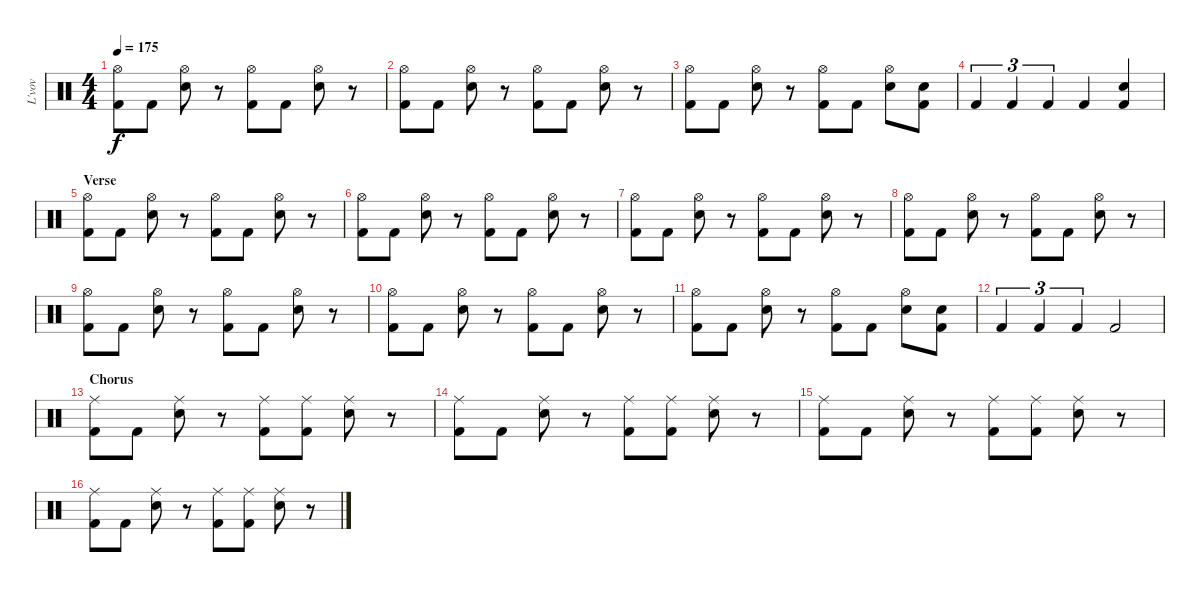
\track ("L'vov" "L'vov") {instrument percussion}
\staff {score}
\articulation defaults
\ts (4 4)
\tempo 175
\clef neutral
\ks c
("Kick (hit) 2" "Hi-Hat (open)").8{dy f} "Kick (hit) 2".8 ("Snare (hit) 2" "Hi-Hat (open)").8 r.8 ("Kick (hit) 2" "Hi-Hat (open)").8 "Kick (hit) 2".8 ("Snare (hit) 2" "Hi-Hat (open)").8 r.8 |
("Kick (hit) 2" "Hi-Hat (open)").8 "Kick (hit) 2".8 ("Snare (hit) 2" "Hi-Hat (open)").8 r.8 ("Kick (hit) 2" "Hi-Hat (open)").8 "Kick (hit) 2".8 ("Snare (hit) 2" "Hi-Hat (open)").8 r.8 |
("Kick (hit) 2" "Hi-Hat (open)").8 "Kick (hit) 2".8 ("Snare (hit) 2" "Hi-Hat (open)").8 r.8 ("Kick (hit) 2" "Hi-Hat (open)").8 "Kick (hit) 2".8 ("Snare (hit) 2" "Hi-Hat (open)").8 ("Snare (hit) 2" "Kick (hit) 2").8 |
"Kick (hit) 2".4{tu (3 2)} "Kick (hit) 2".4{tu (3 2)} "Kick (hit) 2".4{tu (3 2)} "Kick (hit) 2".4 ("Snare (hit) 2" "Kick (hit) 2").4 |
\section ("" "Verse")
("Kick (hit) 2" "Hi-Hat (open)").8 "Kick (hit) 2".8 ("Snare (hit) 2" "Hi-Hat (open)").8 r.8 ("Kick (hit) 2" "Hi-Hat (open)").8 "Kick (hit) 2".8 ("Snare (hit) 2" "Hi-Hat (open)").8 r.8 |
("Kick (hit) 2" "Hi-Hat (open)").8 "Kick (hit) 2".8 ("Snare (hit) 2" "Hi-Hat (open)").8 r.8 ("Kick (hit) 2" "Hi-Hat (open)").8 "Kick (hit) 2".8 ("Snare (hit) 2" "Hi-Hat (open)").8 r.8 |
("Kick (hit) 2" "Hi-Hat (open)").8 "Kick (hit) 2".8 ("Snare (hit) 2" "Hi-Hat (open)").8 r.8 ("Kick (hit) 2" "Hi-Hat (open)").8 "Kick (hit) 2".8 ("Snare (hit) 2" "Hi-Hat (open)").8 r.8 |
("Kick (hit) 2" "Hi-Hat (open)").8 "Kick (hit) 2".8 ("Snare (hit) 2" "Hi-Hat (open)").8 r.8 ("Kick (hit) 2" "Hi-Hat (open)").8 "Kick (hit) 2".8 ("Snare (hit) 2" "Hi-Hat (open)").8 r.8 |
("Kick (hit) 2" "Hi-Hat (open)").8 "Kick (hit) 2".8 ("Snare (hit) 2" "Hi-Hat (open)").8 r.8 ("Kick (hit) 2" "Hi-Hat (open)").8 "Kick (hit) 2".8 ("Snare (hit) 2" "Hi-Hat (open)").8 r.8 |
("Kick (hit) 2" "Hi-Hat (open)").8 "Kick (hit) 2".8 ("Snare (hit) 2" "Hi-Hat (open)").8 r.8 ("Kick (hit) 2" "Hi-Hat (open)").8 "Kick (hit) 2".8 ("Snare (hit) 2" "Hi-Hat (open)").8 r.8 |
("Kick (hit) 2" "Hi-Hat (open)").8 "Kick (hit) 2".8 ("Snare (hit) 2" "Hi-Hat (open)").8 r.8 ("Kick (hit) 2" "Hi-Hat (open)").8 "Kick (hit) 2".8 ("Snare (hit) 2" "Hi-Hat (open)").8 ("Snare (hit) 2" "Kick (hit) 2").8 |
"Kick (hit) 2".4{tu (3 2)} "Kick (hit) 2".4{tu (3 2)} "Kick (hit) 2".4{tu (3 2)} "Kick (hit) 2".2 |
\section ("" "Chorus")
("Kick (hit) 2" "Ride (middle)").8 "Kick (hit) 2".8 ("Snare (hit) 2" "Ride (middle)").8 r.8 ("Kick (hit) 2" "Ride (middle)").8 ("Kick (hit) 2" "Ride (middle)").8 ("Snare (hit) 2" "Ride (middle)").8 r.8 |
("Kick (hit) 2" "Ride (middle)").8 "Kick (hit) 2".8 ("Snare (hit) 2" "Ride (middle)").8 r.8 ("Kick (hit) 2" "Ride (middle)").8 ("Kick (hit) 2" "Ride (middle)").8 ("Snare (hit) 2" "Ride (middle)").8 r.8 |
("Kick (hit) 2" "Ride (middle)").8 "Kick (hit) 2".8 ("Snare (hit) 2" "Ride (middle)").8 r.8 ("Kick (hit) 2" "Ride (middle)").8 ("Kick (hit) 2" "Ride (middle)").8 ("Snare (hit) 2" "Ride (middle)").8 r.8 |
("Kick (hit) 2" "Ride (middle)").8 "Kick (hit) 2".8 ("Snare (hit) 2" "Ride (middle)").8 r.8 ("Kick (hit) 2" "Ride (middle)").8 ("Kick (hit) 2" "Ride (middle)").8 ("Snare (hit) 2" "Ride (middle)").8 r.8
